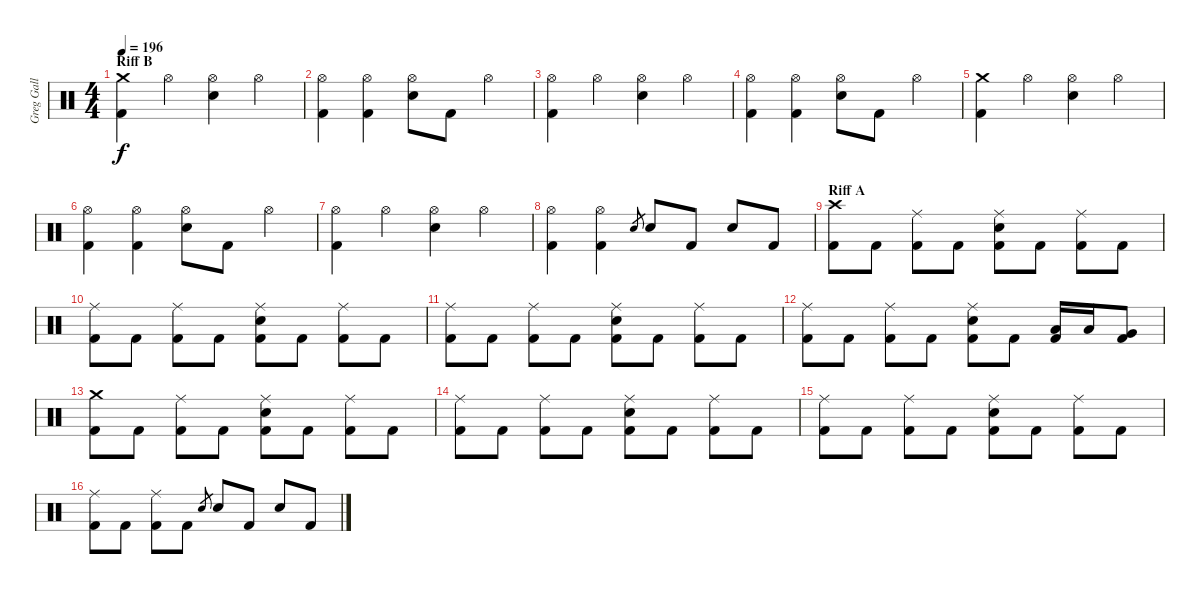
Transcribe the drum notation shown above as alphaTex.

\track ("Greg Gall" "Greg Gall") {instrument percussion}
\staff {score}
\articulation defaults
\ts (4 4)
\section ("" "Riff B")
\tempo 196
\clef neutral
\ks c
("Crash medium (hit)" "Kick (hit) 2").4{dy f} "Hi-Hat (open)".4 ("Hi-Hat (open)" "Electric Snare (hit)").4 "Hi-Hat (open)".4 |
("Hi-Hat (open)" "Kick (hit) 2").4 ("Hi-Hat (open)" "Kick (hit) 2").4 ("Hi-Hat (open)" "Electric Snare (hit)").8 "Kick (hit) 2".8 "Hi-Hat (open)".4 |
("Hi-Hat (open)" "Kick (hit) 2").4 "Hi-Hat (open)".4 ("Hi-Hat (open)" "Electric Snare (hit)").4 "Hi-Hat (open)".4 |
("Hi-Hat (open)" "Kick (hit) 2").4 ("Hi-Hat (open)" "Kick (hit) 2").4 ("Hi-Hat (open)" "Electric Snare (hit)").8 "Kick (hit) 2".8 "Hi-Hat (open)".4 |
("Crash medium (hit)" "Kick (hit) 2").4 "Hi-Hat (open)".4 ("Hi-Hat (open)" "Electric Snare (hit)").4 "Hi-Hat (open)".4 |
("Hi-Hat (open)" "Kick (hit) 2").4 ("Hi-Hat (open)" "Kick (hit) 2").4 ("Hi-Hat (open)" "Electric Snare (hit)").8 "Kick (hit) 2".8 "Hi-Hat (open)".4 |
("Hi-Hat (open)" "Kick (hit) 2").4 "Hi-Hat (open)".4 ("Hi-Hat (open)" "Electric Snare (hit)").4 "Hi-Hat (open)".4 |
("Hi-Hat (open)" "Kick (hit) 2").4 ("Hi-Hat (open)" "Kick (hit) 2").4 "Electric Snare (hit)".8{gr} "Electric Snare (hit)".8 "Kick (hit) 2".8 "Electric Snare (hit)".8 "Kick (hit) 2".8 |
\section ("" "Riff A")
("Crash high (hit)" "Kick (hit) 2").8 "Kick (hit) 2".8 ("Ride (middle)" "Kick (hit) 2").8 "Kick (hit) 2".8 ("Ride (middle)" "Electric Snare (hit)" "Kick (hit) 2").8 "Kick (hit) 2".8 ("Ride (middle)" "Kick (hit) 2").8 "Kick (hit) 2".8 |
("Ride (middle)" "Kick (hit) 2").8 "Kick (hit) 2".8 ("Ride (middle)" "Kick (hit) 2").8 "Kick (hit) 2".8 ("Ride (middle)" "Electric Snare (hit)" "Kick (hit) 2").8 "Kick (hit) 2".8 ("Ride (middle)" "Kick (hit) 2").8 "Kick (hit) 2".8 |
("Ride (middle)" "Kick (hit) 2").8 "Kick (hit) 2".8 ("Ride (middle)" "Kick (hit) 2").8 "Kick (hit) 2".8 ("Ride (middle)" "Electric Snare (hit)" "Kick (hit) 2").8 "Kick (hit) 2".8 ("Ride (middle)" "Kick (hit) 2").8 "Kick (hit) 2".8 |
("Ride (middle)" "Kick (hit) 2").8 "Kick (hit) 2".8 ("Ride (middle)" "Kick (hit) 2").8 "Kick (hit) 2".8 ("Ride (middle)" "Electric Snare (hit)" "Kick (hit) 2").8 "Kick (hit) 2".8 ("Low Tom (hit)" "Kick (hit) 2").16 "Low Tom (hit)".16 ("Very Low Tom (hit)" "Kick (hit) 2").8 |
("Crash medium (hit)" "Kick (hit) 2").8 "Kick (hit) 2".8 ("Ride (middle)" "Kick (hit) 2").8 "Kick (hit) 2".8 ("Ride (middle)" "Electric Snare (hit)" "Kick (hit) 2").8 "Kick (hit) 2".8 ("Ride (middle)" "Kick (hit) 2").8 "Kick (hit) 2".8 |
("Ride (middle)" "Kick (hit) 2").8 "Kick (hit) 2".8 ("Ride (middle)" "Kick (hit) 2").8 "Kick (hit) 2".8 ("Ride (middle)" "Electric Snare (hit)" "Kick (hit) 2").8 "Kick (hit) 2".8 ("Ride (middle)" "Kick (hit) 2").8 "Kick (hit) 2".8 |
("Ride (middle)" "Kick (hit) 2").8 "Kick (hit) 2".8 ("Ride (middle)" "Kick (hit) 2").8 "Kick (hit) 2".8 ("Ride (middle)" "Electric Snare (hit)" "Kick (hit) 2").8 "Kick (hit) 2".8 ("Ride (middle)" "Kick (hit) 2").8 "Kick (hit) 2".8 |
("Ride (middle)" "Kick (hit) 2").8 "Kick (hit) 2".8 ("Ride (middle)" "Kick (hit) 2").8 "Kick (hit) 2".8 "Electric Snare (hit)".8{gr} "Electric Snare (hit)".8 "Kick (hit) 2".8 "Electric Snare (hit)".8 "Kick (hit) 2".8
